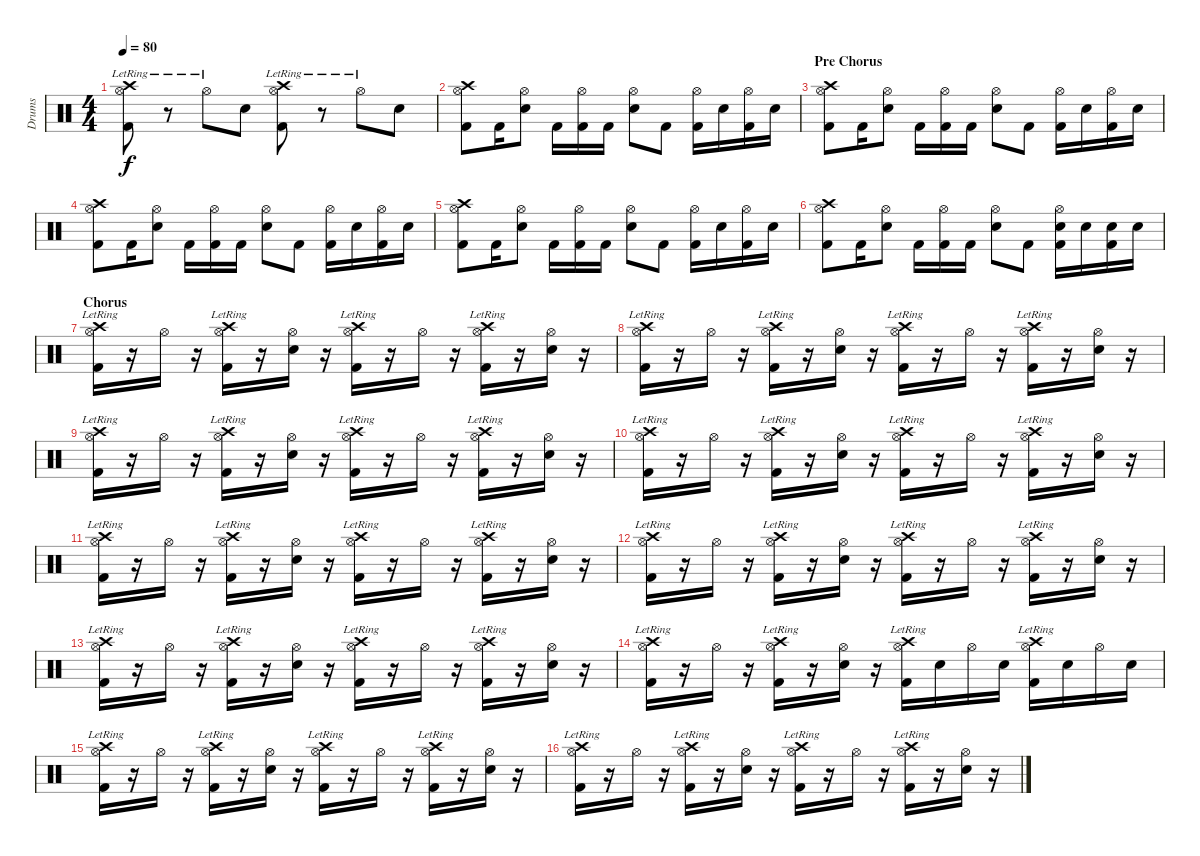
\track ("Drums" "Drums") {instrument percussion}
\staff {score}
\articulation defaults
\ts (4 4)
\tempo 80
\clef neutral
\ks c
("Crash high (hit)"{lr} "Hi-Hat (open)"{lr} "Kick (hit) 2").8{dy f} r.8 "Hi-Hat (open)"{lr}.8 "Snare (hit) 2".8 ("Crash high (hit)"{lr} "Hi-Hat (open)"{lr} "Kick (hit) 2").8 r.8 "Hi-Hat (open)"{lr}.8 "Snare (hit) 2".8 |
("Crash high (hit)" "Hi-Hat (open)" "Kick (hit) 2").8 "Kick (hit) 2".16 ("Hi-Hat (open)" "Snare (hit) 2").8 "Kick (hit) 2".16 ("Hi-Hat (open)" "Kick (hit) 2").16 "Kick (hit) 2".16 ("Hi-Hat (open)" "Snare (hit) 2").8 "Kick (hit) 2".8 ("Hi-Hat (open)" "Kick (hit) 2").16 "Snare (hit) 2".16 ("Hi-Hat (open)" "Kick (hit) 2").16 "Snare (hit) 2".16 |
\section ("" "Pre Chorus")
("Crash high (hit)" "Hi-Hat (open)" "Kick (hit) 2").8 "Kick (hit) 2".16 ("Hi-Hat (open)" "Snare (hit) 2").8 "Kick (hit) 2".16 ("Hi-Hat (open)" "Kick (hit) 2").16 "Kick (hit) 2".16 ("Hi-Hat (open)" "Snare (hit) 2").8 "Kick (hit) 2".8 ("Hi-Hat (open)" "Kick (hit) 2").16 "Snare (hit) 2".16 ("Hi-Hat (open)" "Kick (hit) 2").16 "Snare (hit) 2".16 |
("Crash high (hit)" "Hi-Hat (open)" "Kick (hit) 2").8 "Kick (hit) 2".16 ("Hi-Hat (open)" "Snare (hit) 2").8 "Kick (hit) 2".16 ("Hi-Hat (open)" "Kick (hit) 2").16 "Kick (hit) 2".16 ("Hi-Hat (open)" "Snare (hit) 2").8 "Kick (hit) 2".8 ("Hi-Hat (open)" "Kick (hit) 2").16 "Snare (hit) 2".16 ("Hi-Hat (open)" "Kick (hit) 2").16 "Snare (hit) 2".16 |
("Crash high (hit)" "Hi-Hat (open)" "Kick (hit) 2").8 "Kick (hit) 2".16 ("Hi-Hat (open)" "Snare (hit) 2").8 "Kick (hit) 2".16 ("Hi-Hat (open)" "Kick (hit) 2").16 "Kick (hit) 2".16 ("Hi-Hat (open)" "Snare (hit) 2").8 "Kick (hit) 2".8 ("Hi-Hat (open)" "Kick (hit) 2").16 "Snare (hit) 2".16 ("Hi-Hat (open)" "Kick (hit) 2").16 "Snare (hit) 2".16 |
("Crash high (hit)" "Hi-Hat (open)" "Kick (hit) 2").8 "Kick (hit) 2".16 ("Hi-Hat (open)" "Snare (hit) 2").8 "Kick (hit) 2".16 ("Hi-Hat (open)" "Kick (hit) 2").16 "Kick (hit) 2".16 ("Hi-Hat (open)" "Snare (hit) 2").8 "Kick (hit) 2".8 ("Hi-Hat (open)" "Snare (hit) 2" "Kick (hit) 2").16 "Snare (hit) 2".16 ("Snare (hit) 2" "Kick (hit) 2").16 "Snare (hit) 2".16 |
\section ("" "Chorus")
("Crash high (hit)"{lr} "Hi-Hat (open)" "Kick (hit) 2").16 r.16 "Hi-Hat (open)".16 r.16 ("Crash high (hit)"{lr} "Hi-Hat (open)" "Kick (hit) 2").16 r.16 ("Hi-Hat (open)" "Snare (hit) 2").16 r.16 ("Crash high (hit)"{lr} "Hi-Hat (open)" "Kick (hit) 2").16 r.16 "Hi-Hat (open)".16 r.16 ("Crash high (hit)"{lr} "Hi-Hat (open)" "Kick (hit) 2").16 r.16 ("Hi-Hat (open)" "Snare (hit) 2").16 r.16 |
("Crash high (hit)"{lr} "Hi-Hat (open)" "Kick (hit) 2").16 r.16 "Hi-Hat (open)".16 r.16 ("Crash high (hit)"{lr} "Hi-Hat (open)" "Kick (hit) 2").16 r.16 ("Hi-Hat (open)" "Snare (hit) 2").16 r.16 ("Crash high (hit)"{lr} "Hi-Hat (open)" "Kick (hit) 2").16 r.16 "Hi-Hat (open)".16 r.16 ("Crash high (hit)"{lr} "Hi-Hat (open)" "Kick (hit) 2").16 r.16 ("Hi-Hat (open)" "Snare (hit) 2").16 r.16 |
("Crash high (hit)"{lr} "Hi-Hat (open)" "Kick (hit) 2").16 r.16 "Hi-Hat (open)".16 r.16 ("Crash high (hit)"{lr} "Hi-Hat (open)" "Kick (hit) 2").16 r.16 ("Hi-Hat (open)" "Snare (hit) 2").16 r.16 ("Crash high (hit)"{lr} "Hi-Hat (open)" "Kick (hit) 2").16 r.16 "Hi-Hat (open)".16 r.16 ("Crash high (hit)"{lr} "Hi-Hat (open)" "Kick (hit) 2").16 r.16 ("Hi-Hat (open)" "Snare (hit) 2").16 r.16 |
("Crash high (hit)"{lr} "Hi-Hat (open)" "Kick (hit) 2").16 r.16 "Hi-Hat (open)".16 r.16 ("Crash high (hit)"{lr} "Hi-Hat (open)" "Kick (hit) 2").16 r.16 ("Hi-Hat (open)" "Snare (hit) 2").16 r.16 ("Crash high (hit)"{lr} "Hi-Hat (open)" "Kick (hit) 2").16 r.16 "Hi-Hat (open)".16 r.16 ("Crash high (hit)"{lr} "Hi-Hat (open)" "Kick (hit) 2").16 r.16 ("Hi-Hat (open)" "Snare (hit) 2").16 r.16 |
("Crash high (hit)"{lr} "Hi-Hat (open)" "Kick (hit) 2").16 r.16 "Hi-Hat (open)".16 r.16 ("Crash high (hit)"{lr} "Hi-Hat (open)" "Kick (hit) 2").16 r.16 ("Hi-Hat (open)" "Snare (hit) 2").16 r.16 ("Crash high (hit)"{lr} "Hi-Hat (open)" "Kick (hit) 2").16 r.16 "Hi-Hat (open)".16 r.16 ("Crash high (hit)"{lr} "Hi-Hat (open)" "Kick (hit) 2").16 r.16 ("Hi-Hat (open)" "Snare (hit) 2").16 r.16 |
("Crash high (hit)"{lr} "Hi-Hat (open)" "Kick (hit) 2").16 r.16 "Hi-Hat (open)".16 r.16 ("Crash high (hit)"{lr} "Hi-Hat (open)" "Kick (hit) 2").16 r.16 ("Hi-Hat (open)" "Snare (hit) 2").16 r.16 ("Crash high (hit)"{lr} "Hi-Hat (open)" "Kick (hit) 2").16 r.16 "Hi-Hat (open)".16 r.16 ("Crash high (hit)"{lr} "Hi-Hat (open)" "Kick (hit) 2").16 r.16 ("Hi-Hat (open)" "Snare (hit) 2").16 r.16 |
("Crash high (hit)"{lr} "Hi-Hat (open)" "Kick (hit) 2").16 r.16 "Hi-Hat (open)".16 r.16 ("Crash high (hit)"{lr} "Hi-Hat (open)" "Kick (hit) 2").16 r.16 ("Hi-Hat (open)" "Snare (hit) 2").16 r.16 ("Crash high (hit)"{lr} "Hi-Hat (open)" "Kick (hit) 2").16 r.16 "Hi-Hat (open)".16 r.16 ("Crash high (hit)"{lr} "Hi-Hat (open)" "Kick (hit) 2").16 r.16 ("Hi-Hat (open)" "Snare (hit) 2").16 r.16 |
("Crash high (hit)"{lr} "Hi-Hat (open)" "Kick (hit) 2").16 r.16 "Hi-Hat (open)".16 r.16 ("Crash high (hit)"{lr} "Hi-Hat (open)" "Kick (hit) 2").16 r.16 ("Hi-Hat (open)" "Snare (hit) 2").16 r.16 ("Crash high (hit)"{lr} "Hi-Hat (open)" "Kick (hit) 2").16 "Snare (hit) 2".16 "Hi-Hat (open)".16 "Snare (hit) 2".16 ("Crash high (hit)"{lr} "Hi-Hat (open)" "Kick (hit) 2").16 "Snare (hit) 2".16 "Hi-Hat (open)".16 "Snare (hit) 2".16 |
("Crash high (hit)"{lr} "Hi-Hat (open)" "Kick (hit) 2").16 r.16 "Hi-Hat (open)".16 r.16 ("Crash high (hit)"{lr} "Hi-Hat (open)" "Kick (hit) 2").16 r.16 ("Hi-Hat (open)" "Snare (hit) 2").16 r.16 ("Crash high (hit)"{lr} "Hi-Hat (open)" "Kick (hit) 2").16 r.16 "Hi-Hat (open)".16 r.16 ("Crash high (hit)"{lr} "Hi-Hat (open)" "Kick (hit) 2").16 r.16 ("Hi-Hat (open)" "Snare (hit) 2").16 r.16 |
("Crash high (hit)"{lr} "Hi-Hat (open)" "Kick (hit) 2").16 r.16 "Hi-Hat (open)".16 r.16 ("Crash high (hit)"{lr} "Hi-Hat (open)" "Kick (hit) 2").16 r.16 ("Hi-Hat (open)" "Snare (hit) 2").16 r.16 ("Crash high (hit)"{lr} "Hi-Hat (open)" "Kick (hit) 2").16 r.16 "Hi-Hat (open)".16 r.16 ("Crash high (hit)"{lr} "Hi-Hat (open)" "Kick (hit) 2").16 r.16 ("Hi-Hat (open)" "Snare (hit) 2").16 r.16
